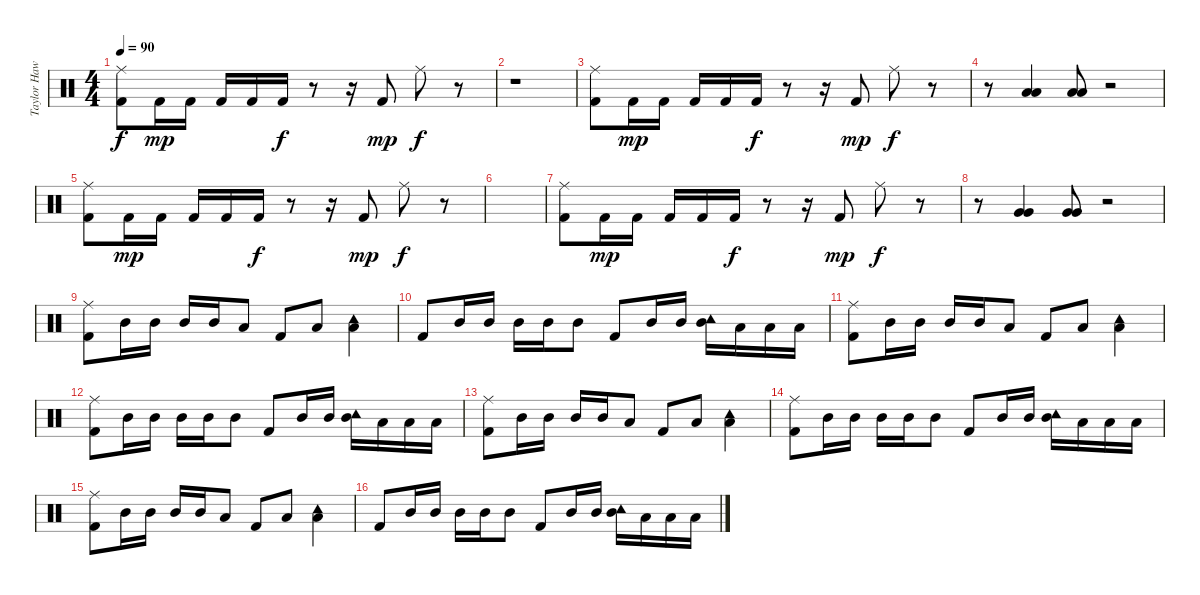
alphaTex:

\track ("Taylor Hawkins" "Taylor Haw") {instrument percussion}
\staff {score}
\articulation defaults
\ts (4 4)
\tempo 90
\clef neutral
\ks c
("Ride (middle)" "Kick (hit) 2").8{dy f} "Kick (hit) 2".16{dy mp} "Kick (hit) 2".16 "Kick (hit) 2".16 "Kick (hit) 2".16 "Kick (hit) 2".16{dy f} r.8 r.16 "Kick (hit) 2".8{dy mp} "Ride (middle)".8{dy f} r.8 |
r.1 |
("Ride (middle)" "Kick (hit) 2").8 "Kick (hit) 2".16{dy mp} "Kick (hit) 2".16 "Kick (hit) 2".16 "Kick (hit) 2".16 "Kick (hit) 2".16{dy f} r.8 r.16 "Kick (hit) 2".8{dy mp} "Ride (middle)".8{dy f} r.8 |
r.8 ("Low Tom (hit)" "Low Tom (hit)").4 ("Low Tom (hit)" "Low Tom (hit)").8 r.2 |
("Ride (middle)" "Kick (hit) 2").8 "Kick (hit) 2".16{dy mp} "Kick (hit) 2".16 "Kick (hit) 2".16 "Kick (hit) 2".16 "Kick (hit) 2".16{dy f} r.8 r.16 "Kick (hit) 2".8{dy mp} "Ride (middle)".8{dy f} r.8 |
|
("Ride (middle)" "Kick (hit) 2").8 "Kick (hit) 2".16{dy mp} "Kick (hit) 2".16 "Kick (hit) 2".16 "Kick (hit) 2".16 "Kick (hit) 2".16{dy f} r.8 r.16 "Kick (hit) 2".8{dy mp} "Ride (middle)".8{dy f} r.8 |
r.8 ("Very Low Tom (hit)" "Very Low Tom (hit)").4 ("Very Low Tom (hit)" "Very Low Tom (hit)").8 r.2 |
("Ride (middle)" "Kick (hit) 2").8 "Mid Tom (hit)".16 "Mid Tom (hit)".16 "Mid Tom (hit)".16 "Mid Tom (hit)".16 "Low Tom (hit)".8 "Kick (hit) 2".8 "Low Tom (hit)".8 ("Tambourine (hit)" "Low Tom (hit)").4 |
"Kick (hit) 2".8 "Mid Tom (hit)".16 "Mid Tom (hit)".16 "Mid Tom (hit)".16 "Mid Tom (hit)".16 "Mid Tom (hit)".8 "Kick (hit) 2".8 "Mid Tom (hit)".16 "Mid Tom (hit)".16 ("Tambourine (hit)" "Mid Tom (hit)").16 "Low Tom (hit)".16 "Low Tom (hit)".16 "Low Tom (hit)".16 |
("Ride (middle)" "Kick (hit) 2").8 "Mid Tom (hit)".16 "Mid Tom (hit)".16 "Mid Tom (hit)".16 "Mid Tom (hit)".16 "Low Tom (hit)".8 "Kick (hit) 2".8 "Low Tom (hit)".8 ("Tambourine (hit)" "Low Tom (hit)").4 |
("Ride (middle)" "Kick (hit) 2").8 "Mid Tom (hit)".16 "Mid Tom (hit)".16 "Mid Tom (hit)".16 "Mid Tom (hit)".16 "Mid Tom (hit)".8 "Kick (hit) 2".8 "Mid Tom (hit)".16 "Mid Tom (hit)".16 ("Tambourine (hit)" "Mid Tom (hit)").16 "Low Tom (hit)".16 "Low Tom (hit)".16 "Low Tom (hit)".16 |
("Ride (middle)" "Kick (hit) 2").8 "Mid Tom (hit)".16 "Mid Tom (hit)".16 "Mid Tom (hit)".16 "Mid Tom (hit)".16 "Low Tom (hit)".8 "Kick (hit) 2".8 "Low Tom (hit)".8 ("Tambourine (hit)" "Low Tom (hit)").4 |
("Ride (middle)" "Kick (hit) 2").8 "Mid Tom (hit)".16 "Mid Tom (hit)".16 "Mid Tom (hit)".16 "Mid Tom (hit)".16 "Mid Tom (hit)".8 "Kick (hit) 2".8 "Mid Tom (hit)".16 "Mid Tom (hit)".16 ("Tambourine (hit)" "Mid Tom (hit)").16 "Low Tom (hit)".16 "Low Tom (hit)".16 "Low Tom (hit)".16 |
("Ride (middle)" "Kick (hit) 2").8 "Mid Tom (hit)".16 "Mid Tom (hit)".16 "Mid Tom (hit)".16 "Mid Tom (hit)".16 "Low Tom (hit)".8 "Kick (hit) 2".8 "Low Tom (hit)".8 ("Tambourine (hit)" "Low Tom (hit)").4 |
"Kick (hit) 2".8 "Mid Tom (hit)".16 "Mid Tom (hit)".16 "Mid Tom (hit)".16 "Mid Tom (hit)".16 "Mid Tom (hit)".8 "Kick (hit) 2".8 "Mid Tom (hit)".16 "Mid Tom (hit)".16 ("Tambourine (hit)" "Mid Tom (hit)").16 "Low Tom (hit)".16 "Low Tom (hit)".16 "Low Tom (hit)".16
